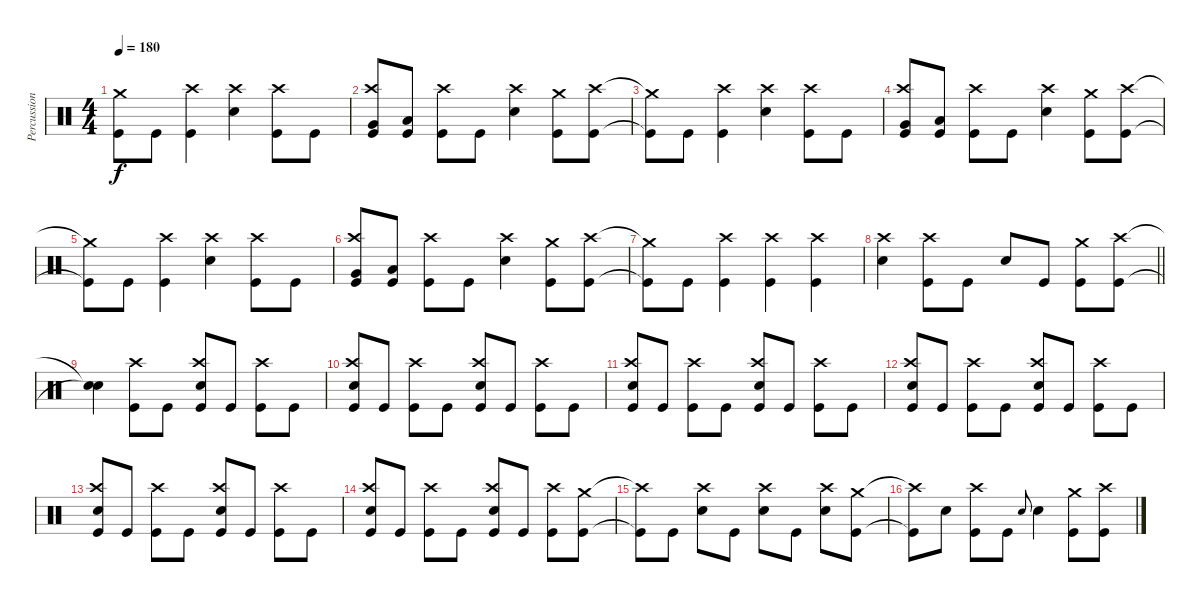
\track ("Percussion" "Percussion") {instrument percussion}
\staff {score}
\articulation defaults
\ts (4 4)
\tempo 180
\clef neutral
\ks c
("Crash medium (hit)"{t} "Kick (hit)"{t}).8{dy f} "Kick (hit)".8 ("Crash high (hit)" "Kick (hit)").4 ("Crash high (hit)" "Snare (hit) 2").4 ("Crash high (hit)" "Kick (hit)").8 "Kick (hit)".8 |
("Crash high (hit)" "Very Low Tom (hit)" "Kick (hit)").8 ("Low Floor Tom (hit)" "Kick (hit)").8 ("Crash high (hit)" "Kick (hit)").8 "Kick (hit)".8 ("Crash high (hit)" "Snare (hit) 2").4 ("Crash medium (hit)" "Kick (hit)").8 ("Crash high (hit)" "Kick (hit)").8 |
("Crash medium (hit)"{t} "Kick (hit)"{t}).8 "Kick (hit)".8 ("Crash high (hit)" "Kick (hit)").4 ("Crash high (hit)" "Snare (hit) 2").4 ("Crash high (hit)" "Kick (hit)").8 "Kick (hit)".8 |
("Crash high (hit)" "Very Low Tom (hit)" "Kick (hit)").8 ("Low Floor Tom (hit)" "Kick (hit)").8 ("Crash high (hit)" "Kick (hit)").8 "Kick (hit)".8 ("Crash high (hit)" "Snare (hit) 2").4 ("Crash medium (hit)" "Kick (hit)").8 ("Crash high (hit)" "Kick (hit)").8 |
("Crash medium (hit)"{t} "Kick (hit)"{t}).8 "Kick (hit)".8 ("Crash high (hit)" "Kick (hit)").4 ("Crash high (hit)" "Snare (hit) 2").4 ("Crash high (hit)" "Kick (hit)").8 "Kick (hit)".8 |
("Crash high (hit)" "Very Low Tom (hit)" "Kick (hit)").8 ("Low Floor Tom (hit)" "Kick (hit)").8 ("Crash high (hit)" "Kick (hit)").8 "Kick (hit)".8 ("Crash high (hit)" "Snare (hit) 2").4 ("Crash medium (hit)" "Kick (hit)").8 ("Crash high (hit)" "Kick (hit)").8 |
("Crash medium (hit)"{t} "Kick (hit)"{t}).8 "Kick (hit)".8 ("Crash high (hit)" "Kick (hit)").4 ("Crash high (hit)" "Kick (hit)").4 ("Crash high (hit)" "Kick (hit)").4 |
\barLineRight lightlight
("Crash high (hit)" "Snare (hit) 2").4 ("Crash high (hit)" "Kick (hit)").8 "Kick (hit)".8 "Snare (hit) 2".8 "Kick (hit)".8 ("Crash medium (hit)" "Kick (hit)").8 ("Crash high (hit)" "Kick (hit)").8 |
("Snare (hit)"{t} "Snare (hit)"{t}).4 ("Crash high (hit)" "Kick (hit)").8 "Kick (hit)".8 ("Crash high (hit)" "Snare (hit) 2" "Kick (hit)").8 "Kick (hit)".8 ("Crash high (hit)" "Kick (hit)").8 "Kick (hit)".8 |
("Crash high (hit)" "Snare (hit) 2" "Kick (hit)").8 "Kick (hit)".8 ("Crash high (hit)" "Kick (hit)").8 "Kick (hit)".8 ("Crash high (hit)" "Snare (hit) 2" "Kick (hit)").8 "Kick (hit)".8 ("Crash high (hit)" "Kick (hit)").8 "Kick (hit)".8 |
("Crash high (hit)" "Snare (hit) 2" "Kick (hit)").8 "Kick (hit)".8 ("Crash high (hit)" "Kick (hit)").8 "Kick (hit)".8 ("Crash high (hit)" "Snare (hit) 2" "Kick (hit)").8 "Kick (hit)".8 ("Crash high (hit)" "Kick (hit)").8 "Kick (hit)".8 |
("Crash high (hit)" "Snare (hit) 2" "Kick (hit)").8 "Kick (hit)".8 ("Crash high (hit)" "Kick (hit)").8 "Kick (hit)".8 ("Crash high (hit)" "Snare (hit) 2" "Kick (hit)").8 "Kick (hit)".8 ("Crash high (hit)" "Kick (hit)").8 "Kick (hit)".8 |
("Crash high (hit)" "Snare (hit) 2" "Kick (hit)").8 "Kick (hit)".8 ("Crash high (hit)" "Kick (hit)").8 "Kick (hit)".8 ("Crash high (hit)" "Snare (hit) 2" "Kick (hit)").8 "Kick (hit)".8 ("Crash high (hit)" "Kick (hit)").8 "Kick (hit)".8 |
("Crash high (hit)" "Snare (hit) 2" "Kick (hit)").8 "Kick (hit)".8 ("Crash high (hit)" "Kick (hit)").8 "Kick (hit)".8 ("Crash high (hit)" "Snare (hit) 2" "Kick (hit)").8 "Kick (hit)".8 ("Crash high (hit)" "Kick (hit)").8 ("Crash medium (hit)" "Kick (hit)").8 |
("Crash high (hit)"{t} "Kick (hit)"{t}).8 "Kick (hit)".8 ("Crash high (hit)" "Snare (hit) 2").8 "Kick (hit)".8 ("Crash high (hit)" "Snare (hit) 2").8 "Kick (hit)".8 ("Crash high (hit)" "Snare (hit) 2").8 ("Crash medium (hit)" "Kick (hit)").8 |
("Crash high (hit)"{t} "Kick (hit)"{t}).8 "Snare (hit) 2".8 ("Crash high (hit)" "Kick (hit)").8 "Kick (hit)".8 "Snare (hit) 2".8{gr onbeat} "Snare (hit) 2".4 ("Crash medium (hit)" "Kick (hit)").8 ("Crash high (hit)" "Kick (hit)").8
